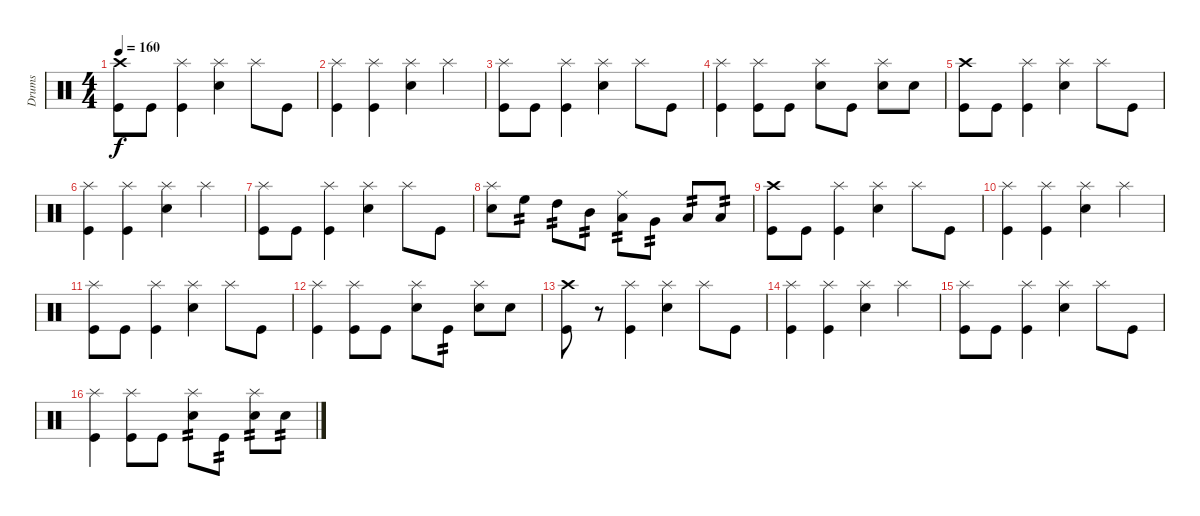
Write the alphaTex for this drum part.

\track ("Drums" "Drums") {instrument percussion}
\staff {score}
\articulation defaults
\ts (4 4)
\tempo 160
\clef neutral
\ks c
("Crash high (hit)" "Kick (hit)").8{dy f} "Kick (hit)".8 ("Splash (hit)" "Kick (hit)").4 ("Splash (hit)" "Snare (hit) 2").4 "Splash (hit)".8 "Kick (hit)".8 |
("Splash (hit)" "Kick (hit)").4 ("Splash (hit)" "Kick (hit)").4 ("Splash (hit)" "Snare (hit) 2").4 "Splash (hit)".4 |
("Splash (hit)" "Kick (hit)").8 "Kick (hit)".8 ("Splash (hit)" "Kick (hit)").4 ("Splash (hit)" "Snare (hit) 2").4 "Splash (hit)".8 "Kick (hit)".8 |
("Splash (hit)" "Kick (hit)").4 ("Splash (hit)" "Kick (hit)").8 "Kick (hit)".8 ("Splash (hit)" "Snare (hit) 2").8 "Kick (hit)".8 ("Splash (hit)" "Snare (hit) 2").8 "Snare (hit) 2".8 |
("Crash high (hit)" "Kick (hit)").8 "Kick (hit)".8 ("Splash (hit)" "Kick (hit)").4 ("Splash (hit)" "Snare (hit) 2").4 "Splash (hit)".8 "Kick (hit)".8 |
("Splash (hit)" "Kick (hit)").4 ("Splash (hit)" "Kick (hit)").4 ("Splash (hit)" "Snare (hit) 2").4 "Splash (hit)".4 |
("Splash (hit)" "Kick (hit)").8 "Kick (hit)".8 ("Splash (hit)" "Kick (hit)").4 ("Splash (hit)" "Snare (hit) 2").4 "Splash (hit)".8 "Kick (hit)".8 |
("Splash (hit)" "Snare (hit) 2").8 "High Floor Tom (hit)".8{tp 2} "High Tom (hit)".8{tp 2} "Mid Tom (hit)".8{tp 2} ("Ride (middle)" "Low Tom (hit)").8{tp 2} "Very Low Tom (hit)".8{tp 2} "Low Floor Tom (hit)".8{tp 2} "Low Floor Tom (hit)".8{tp 2} |
("Crash high (hit)" "Kick (hit)").8 "Kick (hit)".8 ("Splash (hit)" "Kick (hit)").4 ("Splash (hit)" "Snare (hit) 2").4 "Splash (hit)".8 "Kick (hit)".8 |
("Splash (hit)" "Kick (hit)").4 ("Splash (hit)" "Kick (hit)").4 ("Splash (hit)" "Snare (hit) 2").4 "Splash (hit)".4 |
("Splash (hit)" "Kick (hit)").8 "Kick (hit)".8 ("Splash (hit)" "Kick (hit)").4 ("Splash (hit)" "Snare (hit) 2").4 "Splash (hit)".8 "Kick (hit)".8 |
("Splash (hit)" "Kick (hit)").4 ("Splash (hit)" "Kick (hit)").8 "Kick (hit)".8 ("Splash (hit)" "Snare (hit) 2").8 "Kick (hit)".8{tp 2} ("Splash (hit)" "Snare (hit) 2").8 "Snare (hit) 2".8 |
("Crash high (hit)" "Kick (hit)").8 r.8 ("Splash (hit)" "Kick (hit)").4 ("Splash (hit)" "Snare (hit) 2").4 "Splash (hit)".8 "Kick (hit)".8 |
("Splash (hit)" "Kick (hit)").4 ("Splash (hit)" "Kick (hit)").4 ("Splash (hit)" "Snare (hit) 2").4 "Splash (hit)".4 |
("Splash (hit)" "Kick (hit)").8 "Kick (hit)".8 ("Splash (hit)" "Kick (hit)").4 ("Splash (hit)" "Snare (hit) 2").4 "Splash (hit)".8 "Kick (hit)".8 |
("Splash (hit)" "Kick (hit)").4 ("Splash (hit)" "Kick (hit)").8 "Kick (hit)".8 ("Splash (hit)" "Snare (hit) 2").8{tp 2} "Kick (hit)".8{tp 2} ("Splash (hit)" "Snare (hit) 2").8{tp 2} "Snare (hit) 2".8{tp 2}
